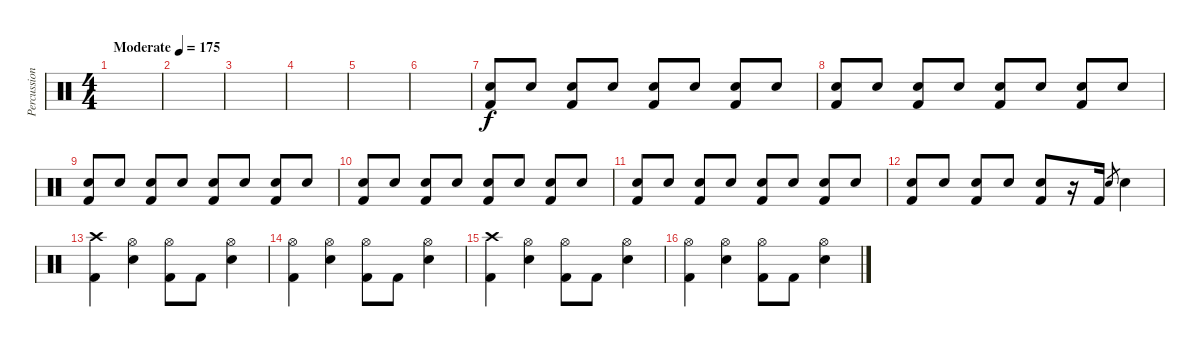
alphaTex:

\track ("Percussion" "Percussion") {instrument percussion}
\staff {score}
\articulation defaults
\ts (4 4)
\tempo (175 "Moderate")
\clef neutral
\ks c
|
|
|
|
|
|
("Kick (hit) 2" "Electric Snare (hit)").8 "Electric Snare (hit)".8 ("Kick (hit) 2" "Electric Snare (hit)").8 "Electric Snare (hit)".8 ("Kick (hit) 2" "Electric Snare (hit)").8 "Electric Snare (hit)".8 ("Kick (hit) 2" "Electric Snare (hit)").8 "Electric Snare (hit)".8 |
("Kick (hit) 2" "Electric Snare (hit)").8 "Electric Snare (hit)".8 ("Kick (hit) 2" "Electric Snare (hit)").8 "Electric Snare (hit)".8 ("Kick (hit) 2" "Electric Snare (hit)").8 "Electric Snare (hit)".8 ("Kick (hit) 2" "Electric Snare (hit)").8 "Electric Snare (hit)".8 |
("Kick (hit) 2" "Electric Snare (hit)").8 "Electric Snare (hit)".8 ("Kick (hit) 2" "Electric Snare (hit)").8 "Electric Snare (hit)".8 ("Kick (hit) 2" "Electric Snare (hit)").8 "Electric Snare (hit)".8 ("Kick (hit) 2" "Electric Snare (hit)").8 "Electric Snare (hit)".8 |
("Kick (hit) 2" "Electric Snare (hit)").8 "Electric Snare (hit)".8 ("Kick (hit) 2" "Electric Snare (hit)").8 "Electric Snare (hit)".8 ("Kick (hit) 2" "Electric Snare (hit)").8 "Electric Snare (hit)".8 ("Kick (hit) 2" "Electric Snare (hit)").8 "Electric Snare (hit)".8 |
("Kick (hit) 2" "Electric Snare (hit)").8 "Electric Snare (hit)".8 ("Kick (hit) 2" "Electric Snare (hit)").8 "Electric Snare (hit)".8 ("Kick (hit) 2" "Electric Snare (hit)").8 "Electric Snare (hit)".8 ("Kick (hit) 2" "Electric Snare (hit)").8 "Electric Snare (hit)".8 |
("Kick (hit) 2" "Electric Snare (hit)").8 "Electric Snare (hit)".8 ("Kick (hit) 2" "Electric Snare (hit)").8 "Electric Snare (hit)".8 ("Kick (hit) 2" "Electric Snare (hit)").8 r.16 "Kick (hit) 2".16 "Electric Snare (hit)".8{gr} "Electric Snare (hit)".4 |
("Kick (hit) 2" "Crash high (hit)").4 ("Electric Snare (hit)" "Hi-Hat (open)").4 ("Kick (hit) 2" "Hi-Hat (open)").8 "Kick (hit) 2".8 ("Electric Snare (hit)" "Hi-Hat (open)").4 |
("Kick (hit) 2" "Hi-Hat (open)").4 ("Electric Snare (hit)" "Hi-Hat (open)").4 ("Kick (hit) 2" "Hi-Hat (open)").8 "Kick (hit) 2".8 ("Electric Snare (hit)" "Hi-Hat (open)").4 |
("Kick (hit) 2" "Crash high (hit)").4 ("Electric Snare (hit)" "Hi-Hat (open)").4 ("Kick (hit) 2" "Hi-Hat (open)").8 "Kick (hit) 2".8 ("Electric Snare (hit)" "Hi-Hat (open)").4 |
("Kick (hit) 2" "Hi-Hat (open)").4 ("Electric Snare (hit)" "Hi-Hat (open)").4 ("Kick (hit) 2" "Hi-Hat (open)").8 "Kick (hit) 2".8 ("Electric Snare (hit)" "Hi-Hat (open)").4
